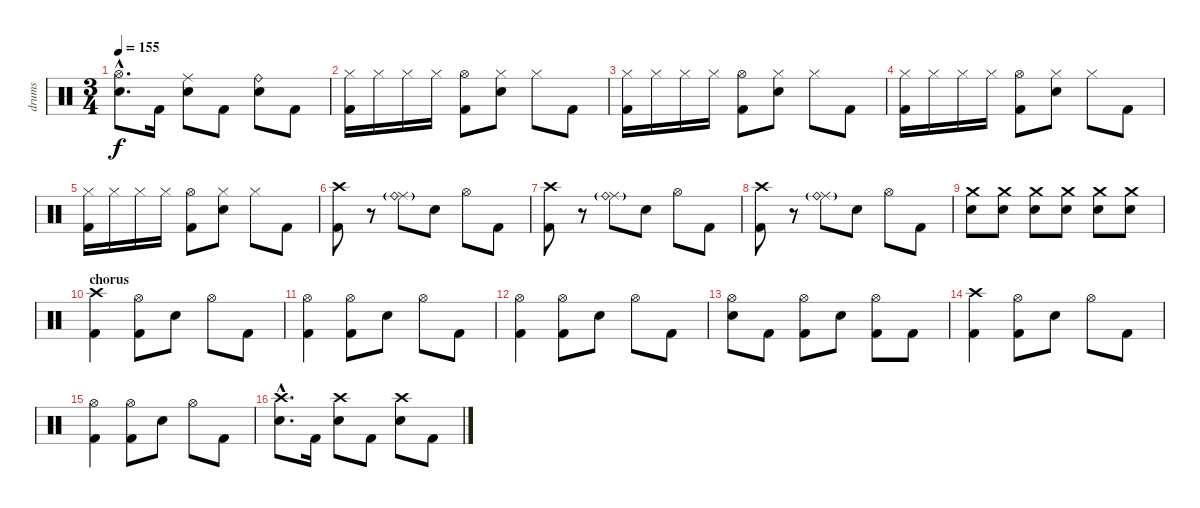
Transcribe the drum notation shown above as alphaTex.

\track ("drums" "drums") {instrument percussion}
\staff {score}
\articulation defaults
\ts (3 4)
\tempo 155
\clef neutral
\ks c
("Hi-Hat (open)"{hac} "Electric Snare (hit)"{hac}).8{d dy f} "Kick (hit) 2".16 ("Ride (middle)" "Electric Snare (hit)").8 "Kick (hit) 2".8 ("Ride (bell)" "Electric Snare (hit)").8 "Kick (hit) 2".8 |
("Hi-Hat (closed)" "Kick (hit) 2").16 "Hi-Hat (closed)".16 "Hi-Hat (closed)".16 "Hi-Hat (closed)".16 ("Hi-Hat (open)" "Kick (hit) 2").8 ("Hi-Hat (closed)" "Electric Snare (hit)").8 "Hi-Hat (closed)".8 "Kick (hit) 2".8 |
("Hi-Hat (closed)" "Kick (hit) 2").16 "Hi-Hat (closed)".16 "Hi-Hat (closed)".16 "Hi-Hat (closed)".16 ("Hi-Hat (open)" "Kick (hit) 2").8 ("Hi-Hat (closed)" "Electric Snare (hit)").8 "Hi-Hat (closed)".8 "Kick (hit) 2".8 |
("Hi-Hat (closed)" "Kick (hit) 2").16 "Hi-Hat (closed)".16 "Hi-Hat (closed)".16 "Hi-Hat (closed)".16 ("Hi-Hat (open)" "Kick (hit) 2").8 ("Hi-Hat (closed)" "Electric Snare (hit)").8 "Hi-Hat (closed)".8 "Kick (hit) 2".8 |
("Hi-Hat (closed)" "Kick (hit) 2").16 "Hi-Hat (closed)".16 "Hi-Hat (closed)".16 "Hi-Hat (closed)".16 ("Hi-Hat (open)" "Kick (hit) 2").8 ("Hi-Hat (closed)" "Electric Snare (hit)").8 "Hi-Hat (closed)".8 "Kick (hit) 2".8 |
("Crash high (hit)" "Kick (hit) 2").8 r.8 ("Ride (middle)" "Ride (bell)"{g}).8 "Electric Snare (hit)".8 "Hi-Hat (open)".8 "Kick (hit) 2".8 |
("Crash high (hit)" "Kick (hit) 2").8 r.8 ("Ride (middle)" "Ride (bell)"{g}).8 "Electric Snare (hit)".8 "Hi-Hat (open)".8 "Kick (hit) 2".8 |
("Crash high (hit)" "Kick (hit) 2").8 r.8 ("Ride (middle)" "Ride (bell)"{g}).8 "Electric Snare (hit)".8 "Hi-Hat (open)".8 "Kick (hit) 2".8 |
("Crash medium (hit)" "Electric Snare (hit)").8 ("Crash medium (hit)" "Electric Snare (hit)").8 ("Crash medium (hit)" "Electric Snare (hit)").8 ("Crash medium (hit)" "Electric Snare (hit)").8 ("Crash medium (hit)" "Electric Snare (hit)").8 ("Crash medium (hit)" "Electric Snare (hit)").8 |
\section ("" "chorus")
("Crash high (hit)" "Kick (hit) 2").4 ("Hi-Hat (open)" "Kick (hit) 2").8 "Electric Snare (hit)".8 "Hi-Hat (open)".8 "Kick (hit) 2".8 |
("Hi-Hat (open)" "Kick (hit) 2").4 ("Hi-Hat (open)" "Kick (hit) 2").8 "Electric Snare (hit)".8 "Hi-Hat (open)".8 "Kick (hit) 2".8 |
("Hi-Hat (open)" "Kick (hit) 2").4 ("Hi-Hat (open)" "Kick (hit) 2").8 "Electric Snare (hit)".8 "Hi-Hat (open)".8 "Kick (hit) 2".8 |
("Hi-Hat (open)" "Electric Snare (hit)").8 "Kick (hit) 2".8 ("Hi-Hat (open)" "Kick (hit) 2").8 "Electric Snare (hit)".8 ("Hi-Hat (open)" "Kick (hit) 2").8 "Kick (hit) 2".8 |
("Crash high (hit)" "Kick (hit) 2").4 ("Hi-Hat (open)" "Kick (hit) 2").8 "Electric Snare (hit)".8 "Hi-Hat (open)".8 "Kick (hit) 2".8 |
("Hi-Hat (open)" "Kick (hit) 2").4 ("Hi-Hat (open)" "Kick (hit) 2").8 "Electric Snare (hit)".8 "Hi-Hat (open)".8 "Kick (hit) 2".8 |
("Crash high (hit)"{hac} "Electric Snare (hit)"{hac}).8{d} "Kick (hit) 2".16 ("Crash high (hit)" "Electric Snare (hit)").8 "Kick (hit) 2".8 ("Crash high (hit)" "Electric Snare (hit)").8 "Kick (hit) 2".8
